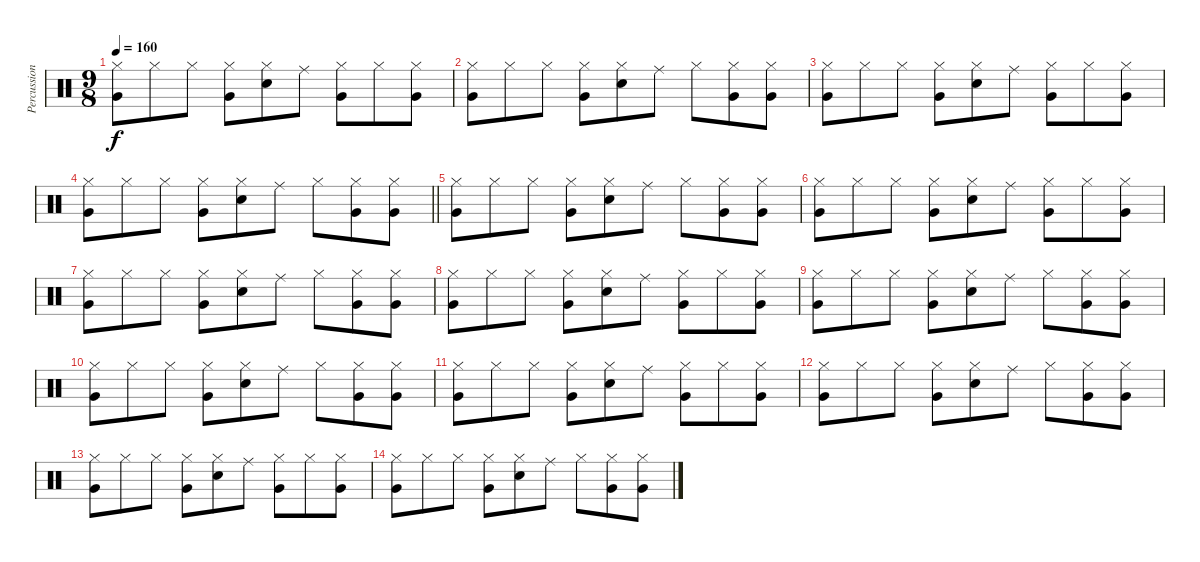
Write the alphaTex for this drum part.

\track ("Percussions" "Percussion") {instrument percussion}
\staff {score}
\articulation defaults
\ts (9 8)
\tempo 160
\clef neutral
\ks c
("Hi-Hat (closed)" "Very Low Tom (hit)").8{dy f} "Hi-Hat (closed)".8 "Hi-Hat (closed)".8 ("Hi-Hat (closed)" "Very Low Tom (hit)").8 ("Hi-Hat (closed)" "Snare (hit) 2").8 "Ride (middle)".8 ("Hi-Hat (closed)" "Very Low Tom (hit)").8 "Hi-Hat (closed)".8 ("Hi-Hat (closed)" "Very Low Tom (hit)").8 |
("Hi-Hat (closed)" "Very Low Tom (hit)").8 "Hi-Hat (closed)".8 "Hi-Hat (closed)".8 ("Hi-Hat (closed)" "Very Low Tom (hit)").8 ("Hi-Hat (closed)" "Snare (hit) 2").8 "Ride (middle)".8 "Hi-Hat (closed)".8 ("Hi-Hat (closed)" "Very Low Tom (hit)").8 ("Hi-Hat (closed)" "Very Low Tom (hit)").8 |
("Hi-Hat (closed)" "Very Low Tom (hit)").8 "Hi-Hat (closed)".8 "Hi-Hat (closed)".8 ("Hi-Hat (closed)" "Very Low Tom (hit)").8 ("Hi-Hat (closed)" "Snare (hit) 2").8 "Ride (middle)".8 ("Hi-Hat (closed)" "Very Low Tom (hit)").8 "Hi-Hat (closed)".8 ("Hi-Hat (closed)" "Very Low Tom (hit)").8 |
\barLineRight lightlight
("Hi-Hat (closed)" "Very Low Tom (hit)").8 "Hi-Hat (closed)".8 "Hi-Hat (closed)".8 ("Hi-Hat (closed)" "Very Low Tom (hit)").8 ("Hi-Hat (closed)" "Snare (hit) 2").8 "Ride (middle)".8 "Hi-Hat (closed)".8 ("Hi-Hat (closed)" "Very Low Tom (hit)").8 ("Hi-Hat (closed)" "Very Low Tom (hit)").8 |
("Hi-Hat (closed)" "Very Low Tom (hit)").8 "Hi-Hat (closed)".8 "Hi-Hat (closed)".8 ("Hi-Hat (closed)" "Very Low Tom (hit)").8 ("Hi-Hat (closed)" "Snare (hit) 2").8 "Ride (middle)".8 "Hi-Hat (closed)".8 ("Hi-Hat (closed)" "Very Low Tom (hit)").8 ("Hi-Hat (closed)" "Very Low Tom (hit)").8 |
("Hi-Hat (closed)" "Very Low Tom (hit)").8 "Hi-Hat (closed)".8 "Hi-Hat (closed)".8 ("Hi-Hat (closed)" "Very Low Tom (hit)").8 ("Hi-Hat (closed)" "Snare (hit) 2").8 "Ride (middle)".8 ("Hi-Hat (closed)" "Very Low Tom (hit)").8 "Hi-Hat (closed)".8 ("Hi-Hat (closed)" "Very Low Tom (hit)").8 |
("Hi-Hat (closed)" "Very Low Tom (hit)").8 "Hi-Hat (closed)".8 "Hi-Hat (closed)".8 ("Hi-Hat (closed)" "Very Low Tom (hit)").8 ("Hi-Hat (closed)" "Snare (hit) 2").8 "Ride (middle)".8 "Hi-Hat (closed)".8 ("Hi-Hat (closed)" "Very Low Tom (hit)").8 ("Hi-Hat (closed)" "Very Low Tom (hit)").8 |
("Hi-Hat (closed)" "Very Low Tom (hit)").8 "Hi-Hat (closed)".8 "Hi-Hat (closed)".8 ("Hi-Hat (closed)" "Very Low Tom (hit)").8 ("Hi-Hat (closed)" "Snare (hit) 2").8 "Ride (middle)".8 ("Hi-Hat (closed)" "Very Low Tom (hit)").8 "Hi-Hat (closed)".8 ("Hi-Hat (closed)" "Very Low Tom (hit)").8 |
("Hi-Hat (closed)" "Very Low Tom (hit)").8 "Hi-Hat (closed)".8 "Hi-Hat (closed)".8 ("Hi-Hat (closed)" "Very Low Tom (hit)").8 ("Hi-Hat (closed)" "Snare (hit) 2").8 "Ride (middle)".8 "Hi-Hat (closed)".8 ("Hi-Hat (closed)" "Very Low Tom (hit)").8 ("Hi-Hat (closed)" "Very Low Tom (hit)").8 |
("Hi-Hat (closed)" "Very Low Tom (hit)").8 "Hi-Hat (closed)".8 "Hi-Hat (closed)".8 ("Hi-Hat (closed)" "Very Low Tom (hit)").8 ("Hi-Hat (closed)" "Snare (hit) 2").8 "Ride (middle)".8 "Hi-Hat (closed)".8 ("Hi-Hat (closed)" "Very Low Tom (hit)").8 ("Hi-Hat (closed)" "Very Low Tom (hit)").8 |
("Hi-Hat (closed)" "Very Low Tom (hit)").8 "Hi-Hat (closed)".8 "Hi-Hat (closed)".8 ("Hi-Hat (closed)" "Very Low Tom (hit)").8 ("Hi-Hat (closed)" "Snare (hit) 2").8 "Ride (middle)".8 ("Hi-Hat (closed)" "Very Low Tom (hit)").8 "Hi-Hat (closed)".8 ("Hi-Hat (closed)" "Very Low Tom (hit)").8 |
("Hi-Hat (closed)" "Very Low Tom (hit)").8 "Hi-Hat (closed)".8 "Hi-Hat (closed)".8 ("Hi-Hat (closed)" "Very Low Tom (hit)").8 ("Hi-Hat (closed)" "Snare (hit) 2").8 "Ride (middle)".8 "Hi-Hat (closed)".8 ("Hi-Hat (closed)" "Very Low Tom (hit)").8 ("Hi-Hat (closed)" "Very Low Tom (hit)").8 |
("Hi-Hat (closed)" "Very Low Tom (hit)").8 "Hi-Hat (closed)".8 "Hi-Hat (closed)".8 ("Hi-Hat (closed)" "Very Low Tom (hit)").8 ("Hi-Hat (closed)" "Snare (hit) 2").8 "Ride (middle)".8 ("Hi-Hat (closed)" "Very Low Tom (hit)").8 "Hi-Hat (closed)".8 ("Hi-Hat (closed)" "Very Low Tom (hit)").8 |
("Hi-Hat (closed)" "Very Low Tom (hit)").8 "Hi-Hat (closed)".8 "Hi-Hat (closed)".8 ("Hi-Hat (closed)" "Very Low Tom (hit)").8 ("Hi-Hat (closed)" "Snare (hit) 2").8 "Ride (middle)".8 "Hi-Hat (closed)".8 ("Hi-Hat (closed)" "Very Low Tom (hit)").8 ("Hi-Hat (closed)" "Very Low Tom (hit)").8
